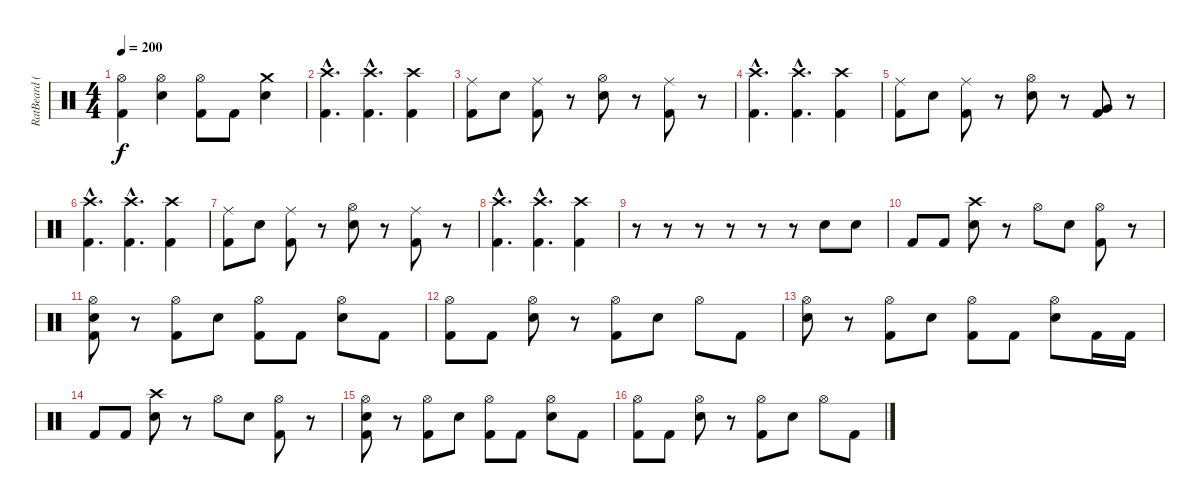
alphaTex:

\track ("RatBeard (Drum)" "RatBeard (") {instrument percussion}
\staff {score}
\articulation defaults
\ts (4 4)
\tempo 200
\clef neutral
\ks c
("Hi-Hat (open)" "Kick (hit) 2").4{dy f} ("Hi-Hat (open)" "Electric Snare (hit)").4 ("Hi-Hat (open)" "Kick (hit) 2").8 "Kick (hit) 2".8 ("Crash medium (hit)" "Electric Snare (hit)").4 |
("Crash high (hit)"{hac} "Kick (hit) 2"{hac}).4{d} ("Crash high (hit)"{hac} "Kick (hit) 2"{hac}).4{d} ("Crash high (hit)" "Kick (hit) 2").4 |
("Ride (middle)" "Kick (hit) 2").8 "Electric Snare (hit)".8 ("Ride (middle)" "Kick (hit) 2").8 r.8 ("Hi-Hat (open)" "Electric Snare (hit)").8 r.8 ("Ride (middle)" "Kick (hit) 2").8 r.8 |
("Crash high (hit)"{hac} "Kick (hit) 2"{hac}).4{d} ("Crash high (hit)"{hac} "Kick (hit) 2"{hac}).4{d} ("Crash high (hit)" "Kick (hit) 2").4 |
("Ride (middle)" "Kick (hit) 2").8 "Electric Snare (hit)".8 ("Ride (middle)" "Kick (hit) 2").8 r.8 ("Hi-Hat (open)" "Electric Snare (hit)").8 r.8 ("Very Low Tom (hit)" "Kick (hit) 2").8 r.8 |
("Crash high (hit)"{hac} "Kick (hit) 2"{hac}).4{d} ("Crash high (hit)"{hac} "Kick (hit) 2"{hac}).4{d} ("Crash high (hit)" "Kick (hit) 2").4 |
("Ride (middle)" "Kick (hit) 2").8 "Electric Snare (hit)".8 ("Ride (middle)" "Kick (hit) 2").8 r.8 ("Hi-Hat (open)" "Electric Snare (hit)").8 r.8 ("Ride (middle)" "Kick (hit) 2").8 r.8 |
("Crash high (hit)"{hac} "Kick (hit) 2"{hac}).4{d} ("Crash high (hit)"{hac} "Kick (hit) 2"{hac}).4{d} ("Crash high (hit)" "Kick (hit) 2").4 |
r.8 r.8 r.8 r.8 r.8 r.8 "Electric Snare (hit)".8 "Electric Snare (hit)".8 |
"Kick (hit) 2".8 "Kick (hit) 2".8 ("Crash high (hit)" "Electric Snare (hit)").8 r.8 "Hi-Hat (open)".8 "Electric Snare (hit)".8 ("Hi-Hat (open)" "Kick (hit) 2").8 r.8 |
("Hi-Hat (open)" "Electric Snare (hit)" "Kick (hit) 2").8 r.8 ("Hi-Hat (open)" "Kick (hit) 2").8 "Electric Snare (hit)".8 ("Hi-Hat (open)" "Kick (hit) 2").8 "Kick (hit) 2".8 ("Hi-Hat (open)" "Electric Snare (hit)").8 "Kick (hit) 2".8 |
("Hi-Hat (open)" "Kick (hit) 2").8 "Kick (hit) 2".8 ("Hi-Hat (open)" "Electric Snare (hit)").8 r.8 ("Hi-Hat (open)" "Kick (hit) 2").8 "Electric Snare (hit)".8 "Hi-Hat (open)".8 "Kick (hit) 2".8 |
("Hi-Hat (open)" "Electric Snare (hit)").8 r.8 ("Hi-Hat (open)" "Kick (hit) 2").8 "Electric Snare (hit)".8 ("Hi-Hat (open)" "Kick (hit) 2").8 "Kick (hit) 2".8 ("Hi-Hat (open)" "Electric Snare (hit)").8 "Kick (hit) 2".16 "Kick (hit) 2".16 |
"Kick (hit) 2".8 "Kick (hit) 2".8 ("Crash high (hit)" "Electric Snare (hit)").8 r.8 "Hi-Hat (open)".8 "Electric Snare (hit)".8 ("Hi-Hat (open)" "Kick (hit) 2").8 r.8 |
("Hi-Hat (open)" "Electric Snare (hit)" "Kick (hit) 2").8 r.8 ("Hi-Hat (open)" "Kick (hit) 2").8 "Electric Snare (hit)".8 ("Hi-Hat (open)" "Kick (hit) 2").8 "Kick (hit) 2".8 ("Hi-Hat (open)" "Electric Snare (hit)").8 "Kick (hit) 2".8 |
("Hi-Hat (open)" "Kick (hit) 2").8 "Kick (hit) 2".8 ("Hi-Hat (open)" "Electric Snare (hit)").8 r.8 ("Hi-Hat (open)" "Kick (hit) 2").8 "Electric Snare (hit)".8 "Hi-Hat (open)".8 "Kick (hit) 2".8
